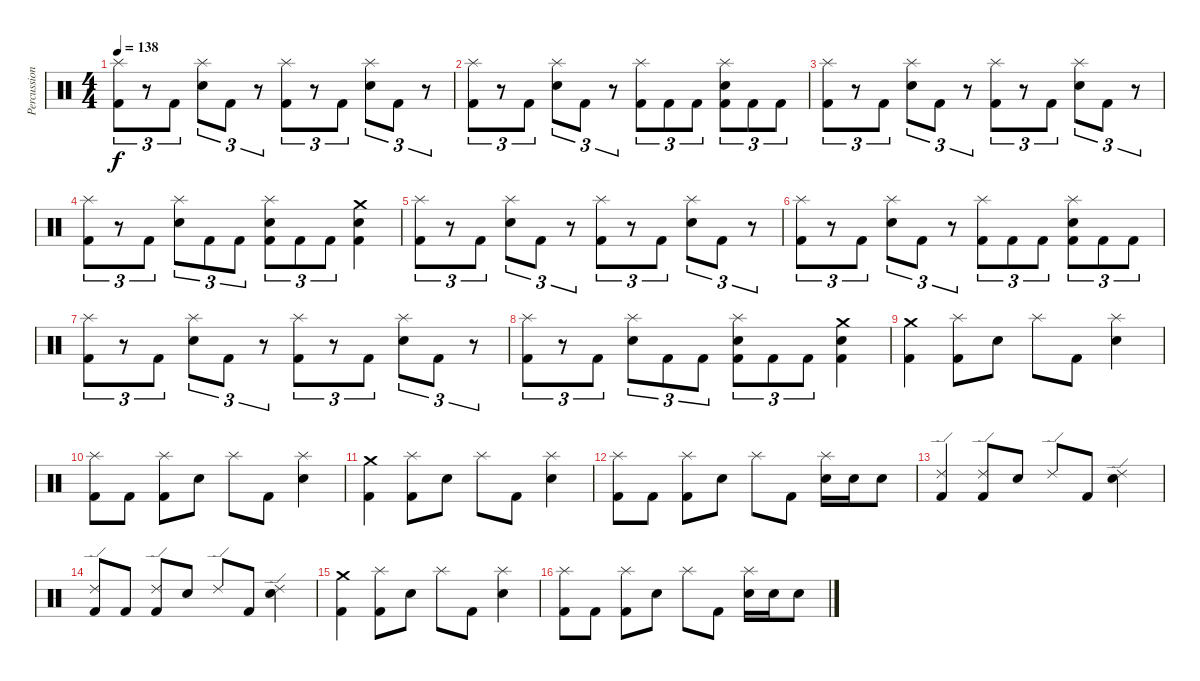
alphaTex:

\track ("Percussion" "Percussion") {instrument percussion}
\staff {score}
\articulation defaults
\ts (4 4)
\tempo 138
\clef neutral
\ks c
("Splash (hit)" "Kick (hit) 2").8{tu (3 2) dy f} r.8{tu (3 2)} "Kick (hit) 2".8{tu (3 2)} ("Splash (hit)" "Snare (hit) 2").8{tu (3 2)} "Kick (hit) 2".8{tu (3 2)} r.8{tu (3 2)} ("Splash (hit)" "Kick (hit) 2").8{tu (3 2)} r.8{tu (3 2)} "Kick (hit) 2".8{tu (3 2)} ("Splash (hit)" "Snare (hit) 2").8{tu (3 2)} "Kick (hit) 2".8{tu (3 2)} r.8{tu (3 2)} |
("Splash (hit)" "Kick (hit) 2").8{tu (3 2)} r.8{tu (3 2)} "Kick (hit) 2".8{tu (3 2)} ("Splash (hit)" "Snare (hit) 2").8{tu (3 2)} "Kick (hit) 2".8{tu (3 2)} r.8{tu (3 2)} ("Splash (hit)" "Kick (hit) 2").8{tu (3 2)} "Kick (hit) 2".8{tu (3 2)} "Kick (hit) 2".8{tu (3 2)} ("Splash (hit)" "Snare (hit) 2" "Kick (hit) 2").8{tu (3 2)} "Kick (hit) 2".8{tu (3 2)} "Kick (hit) 2".8{tu (3 2)} |
("Splash (hit)" "Kick (hit) 2").8{tu (3 2)} r.8{tu (3 2)} "Kick (hit) 2".8{tu (3 2)} ("Splash (hit)" "Snare (hit) 2").8{tu (3 2)} "Kick (hit) 2".8{tu (3 2)} r.8{tu (3 2)} ("Splash (hit)" "Kick (hit) 2").8{tu (3 2)} r.8{tu (3 2)} "Kick (hit) 2".8{tu (3 2)} ("Splash (hit)" "Snare (hit) 2").8{tu (3 2)} "Kick (hit) 2".8{tu (3 2)} r.8{tu (3 2)} |
("Splash (hit)" "Kick (hit) 2").8{tu (3 2)} r.8{tu (3 2)} "Kick (hit) 2".8{tu (3 2)} ("Splash (hit)" "Snare (hit) 2").8{tu (3 2)} "Kick (hit) 2".8{tu (3 2)} "Kick (hit) 2".8{tu (3 2)} ("Splash (hit)" "Snare (hit) 2" "Kick (hit) 2").8{tu (3 2)} "Kick (hit) 2".8{tu (3 2)} "Kick (hit) 2".8{tu (3 2)} ("Crash medium (hit)" "Snare (hit) 2" "Kick (hit) 2").4 |
("Splash (hit)" "Kick (hit) 2").8{tu (3 2)} r.8{tu (3 2)} "Kick (hit) 2".8{tu (3 2)} ("Splash (hit)" "Snare (hit) 2").8{tu (3 2)} "Kick (hit) 2".8{tu (3 2)} r.8{tu (3 2)} ("Splash (hit)" "Kick (hit) 2").8{tu (3 2)} r.8{tu (3 2)} "Kick (hit) 2".8{tu (3 2)} ("Splash (hit)" "Snare (hit) 2").8{tu (3 2)} "Kick (hit) 2".8{tu (3 2)} r.8{tu (3 2)} |
("Splash (hit)" "Kick (hit) 2").8{tu (3 2)} r.8{tu (3 2)} "Kick (hit) 2".8{tu (3 2)} ("Splash (hit)" "Snare (hit) 2").8{tu (3 2)} "Kick (hit) 2".8{tu (3 2)} r.8{tu (3 2)} ("Splash (hit)" "Kick (hit) 2").8{tu (3 2)} "Kick (hit) 2".8{tu (3 2)} "Kick (hit) 2".8{tu (3 2)} ("Splash (hit)" "Snare (hit) 2" "Kick (hit) 2").8{tu (3 2)} "Kick (hit) 2".8{tu (3 2)} "Kick (hit) 2".8{tu (3 2)} |
("Splash (hit)" "Kick (hit) 2").8{tu (3 2)} r.8{tu (3 2)} "Kick (hit) 2".8{tu (3 2)} ("Splash (hit)" "Snare (hit) 2").8{tu (3 2)} "Kick (hit) 2".8{tu (3 2)} r.8{tu (3 2)} ("Splash (hit)" "Kick (hit) 2").8{tu (3 2)} r.8{tu (3 2)} "Kick (hit) 2".8{tu (3 2)} ("Splash (hit)" "Snare (hit) 2").8{tu (3 2)} "Kick (hit) 2".8{tu (3 2)} r.8{tu (3 2)} |
("Splash (hit)" "Kick (hit) 2").8{tu (3 2)} r.8{tu (3 2)} "Kick (hit) 2".8{tu (3 2)} ("Splash (hit)" "Snare (hit) 2").8{tu (3 2)} "Kick (hit) 2".8{tu (3 2)} "Kick (hit) 2".8{tu (3 2)} ("Splash (hit)" "Snare (hit) 2" "Kick (hit) 2").8{tu (3 2)} "Kick (hit) 2".8{tu (3 2)} "Kick (hit) 2".8{tu (3 2)} ("Crash medium (hit)" "Snare (hit) 2" "Kick (hit) 2").4 |
("Crash medium (hit)" "Kick (hit) 2").4 ("Splash (hit)" "Kick (hit) 2").8 "Snare (hit) 2".8 "Splash (hit)".8 "Kick (hit) 2".8 ("Splash (hit)" "Snare (hit) 2").4 |
("Splash (hit)" "Kick (hit) 2").8 "Kick (hit) 2".8 ("Splash (hit)" "Kick (hit) 2").8 "Snare (hit) 2".8 "Splash (hit)".8 "Kick (hit) 2".8 ("Splash (hit)" "Snare (hit) 2").4 |
("Crash medium (hit)" "Kick (hit) 2").4 ("Splash (hit)" "Kick (hit) 2").8 "Snare (hit) 2".8 "Splash (hit)".8 "Kick (hit) 2".8 ("Splash (hit)" "Snare (hit) 2").4 |
("Splash (hit)" "Kick (hit) 2").8 "Kick (hit) 2".8 ("Splash (hit)" "Kick (hit) 2").8 "Snare (hit) 2".8 "Splash (hit)".8 "Kick (hit) 2".8 ("Splash (hit)" "Snare (hit) 2").16 "Snare (hit) 2".16 "Snare (hit) 2".8 |
("Ride (edge) 2" "Kick (hit) 2").4 ("Ride (edge) 2" "Kick (hit) 2").8 "Snare (hit) 2".8 "Ride (edge) 2".8 "Kick (hit) 2".8 ("Ride (edge) 2" "Snare (hit) 2").4 |
("Ride (edge) 2" "Kick (hit) 2").8 "Kick (hit) 2".8 ("Ride (edge) 2" "Kick (hit) 2").8 "Snare (hit) 2".8 "Ride (edge) 2".8 "Kick (hit) 2".8 ("Ride (edge) 2" "Snare (hit) 2").4 |
("Crash medium (hit)" "Kick (hit) 2").4 ("Splash (hit)" "Kick (hit) 2").8 "Snare (hit) 2".8 "Splash (hit)".8 "Kick (hit) 2".8 ("Splash (hit)" "Snare (hit) 2").4 |
("Splash (hit)" "Kick (hit) 2").8 "Kick (hit) 2".8 ("Splash (hit)" "Kick (hit) 2").8 "Snare (hit) 2".8 "Splash (hit)".8 "Kick (hit) 2".8 ("Splash (hit)" "Snare (hit) 2").16 "Snare (hit) 2".16 "Snare (hit) 2".8
